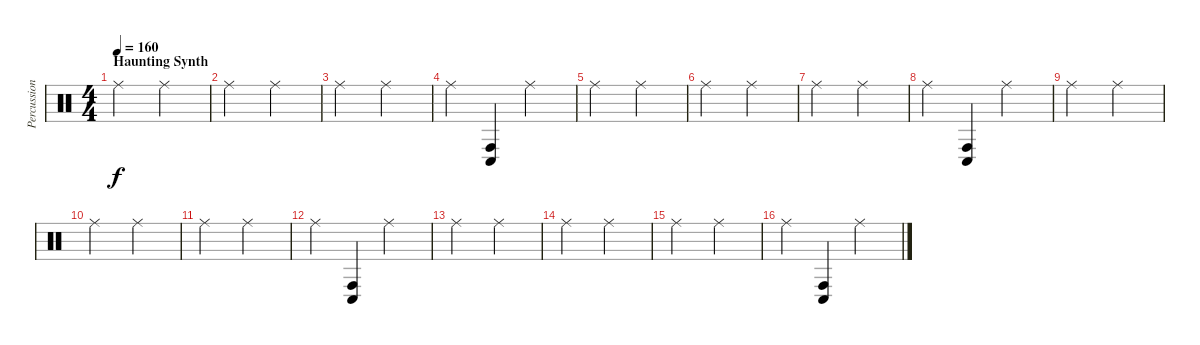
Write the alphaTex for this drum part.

\track ("Percussion" "Percussion") {instrument percussion}
\staff {score}
\articulation defaults
\ts (4 4)
\section ("" "Haunting Synth")
\tempo 160
\clef neutral
\ks c "Ride (middle)".2{dy f} "Ride (middle)".2
|
"Ride (middle)".2 "Ride (middle)".2 |
"Ride (middle)".2 "Ride (middle)".2 |
"Ride (middle)".4 ("Conga low (hit)" "Conga high (hit)").4 "Ride (middle)".2 |
"Ride (middle)".2 "Ride (middle)".2 |
"Ride (middle)".2 "Ride (middle)".2 |
"Ride (middle)".2 "Ride (middle)".2 |
"Ride (middle)".4 ("Conga low (hit)" "Conga high (hit)").4 "Ride (middle)".2 |
"Ride (middle)".2 "Ride (middle)".2 |
"Ride (middle)".2 "Ride (middle)".2 |
"Ride (middle)".2 "Ride (middle)".2 |
"Ride (middle)".4 ("Conga low (hit)" "Conga high (hit)").4 "Ride (middle)".2 |
"Ride (middle)".2 "Ride (middle)".2 |
"Ride (middle)".2 "Ride (middle)".2 |
"Ride (middle)".2 "Ride (middle)".2 |
"Ride (middle)".4 ("Conga low (hit)" "Conga high (hit)").4 "Ride (middle)".2
